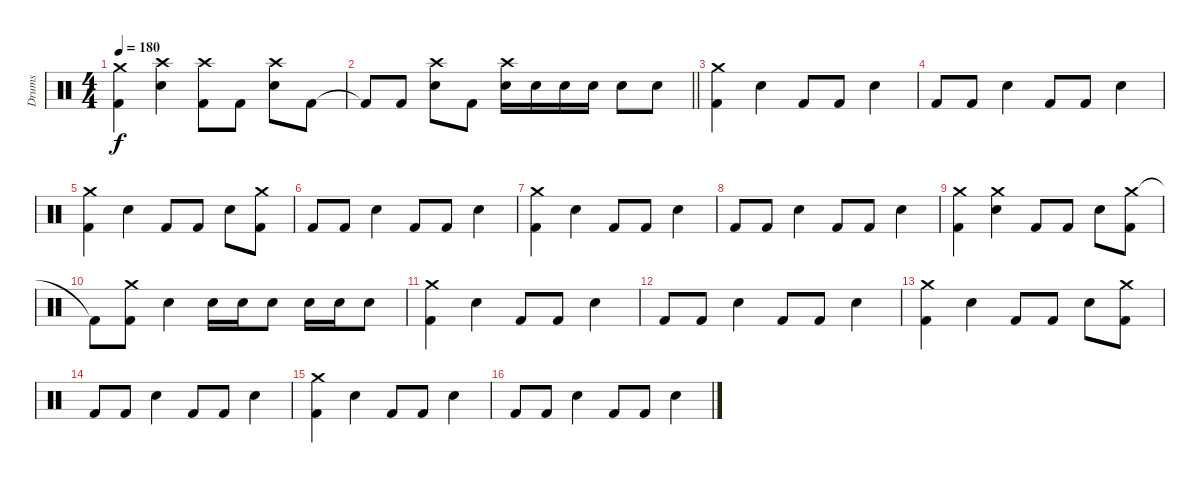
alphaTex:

\track ("Drums" "Drums") {instrument percussion}
\staff {score}
\articulation defaults
\ts (4 4)
\tempo 180
\clef neutral
\ks c
("Crash medium (hit)" "Kick (hit) 2").4{dy f} ("Crash high (hit)" "Electric Snare (hit)").4 ("Crash high (hit)" "Kick (hit) 2").8 "Kick (hit) 2".8 ("Crash high (hit)" "Electric Snare (hit)").8 "Kick (hit) 2".8 |
\barLineRight lightlight "Kick (hit) 2"{t}.8 "Kick (hit) 2".8
("Crash high (hit)" "Electric Snare (hit)").8 "Kick (hit) 2".8 ("Crash high (hit)" "Electric Snare (hit)").16 "Electric Snare (hit)".16 "Electric Snare (hit)".16 "Electric Snare (hit)".16 "Electric Snare (hit)".8 "Electric Snare (hit)".8 |
("Crash medium (hit)" "Kick (hit) 2").4 "Electric Snare (hit)".4 "Kick (hit) 2".8 "Kick (hit) 2".8 "Electric Snare (hit)".4 |
"Kick (hit) 2".8 "Kick (hit) 2".8 "Electric Snare (hit)".4 "Kick (hit) 2".8 "Kick (hit) 2".8 "Electric Snare (hit)".4 |
("Crash medium (hit)" "Kick (hit) 2").4 "Electric Snare (hit)".4 "Kick (hit) 2".8 "Kick (hit) 2".8 "Electric Snare (hit)".8 ("Crash medium (hit)" "Kick (hit) 2").8 |
"Kick (hit) 2".8 "Kick (hit) 2".8 "Electric Snare (hit)".4 "Kick (hit) 2".8 "Kick (hit) 2".8 "Electric Snare (hit)".4 |
("Crash medium (hit)" "Kick (hit) 2").4 "Electric Snare (hit)".4 "Kick (hit) 2".8 "Kick (hit) 2".8 "Electric Snare (hit)".4 |
"Kick (hit) 2".8 "Kick (hit) 2".8 "Electric Snare (hit)".4 "Kick (hit) 2".8 "Kick (hit) 2".8 "Electric Snare (hit)".4 |
("Crash medium (hit)" "Kick (hit) 2").4 ("Crash medium (hit)" "Electric Snare (hit)").4 "Kick (hit) 2".8 "Kick (hit) 2".8 "Electric Snare (hit)".8 ("Crash medium (hit)" "Kick (hit) 2").8 |
"Kick (hit) 2"{t}.8 ("Crash medium (hit)" "Kick (hit) 2").8 "Electric Snare (hit)".4 "Electric Snare (hit)".16 "Electric Snare (hit)".16 "Electric Snare (hit)".8 "Electric Snare (hit)".16 "Electric Snare (hit)".16 "Electric Snare (hit)".8 |
("Crash medium (hit)" "Kick (hit) 2").4 "Electric Snare (hit)".4 "Kick (hit) 2".8 "Kick (hit) 2".8 "Electric Snare (hit)".4 |
"Kick (hit) 2".8 "Kick (hit) 2".8 "Electric Snare (hit)".4 "Kick (hit) 2".8 "Kick (hit) 2".8 "Electric Snare (hit)".4 |
("Crash medium (hit)" "Kick (hit) 2").4 "Electric Snare (hit)".4 "Kick (hit) 2".8 "Kick (hit) 2".8 "Electric Snare (hit)".8 ("Crash medium (hit)" "Kick (hit) 2").8 |
"Kick (hit) 2".8 "Kick (hit) 2".8 "Electric Snare (hit)".4 "Kick (hit) 2".8 "Kick (hit) 2".8 "Electric Snare (hit)".4 |
("Crash medium (hit)" "Kick (hit) 2").4 "Electric Snare (hit)".4 "Kick (hit) 2".8 "Kick (hit) 2".8 "Electric Snare (hit)".4 |
"Kick (hit) 2".8 "Kick (hit) 2".8 "Electric Snare (hit)".4 "Kick (hit) 2".8 "Kick (hit) 2".8 "Electric Snare (hit)".4
